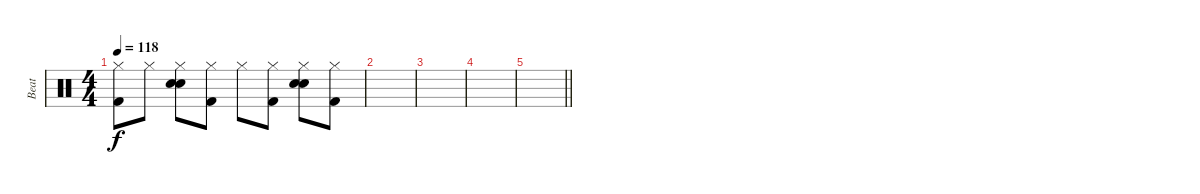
\track ("Beat" "Beat") {instrument percussion}
\staff {score}
\articulation defaults
\ts (4 4)
\tempo 118
\clef neutral
\ks c
("Hi-Hat (closed)" "Kick (hit) 2").8{dy f} "Hi-Hat (closed)".8 ("Hi-Hat (closed)" "Electric Snare (hit)" "Hand Clap (hit)").8 ("Hi-Hat (closed)" "Kick (hit) 2").8 "Hi-Hat (closed)".8 ("Hi-Hat (closed)" "Kick (hit) 2").8 ("Hi-Hat (closed)" "Electric Snare (hit)" "Hand Clap (hit)").8 ("Hi-Hat (closed)" "Kick (hit) 2").8 |
|
|
|
\barLineRight lightlight
